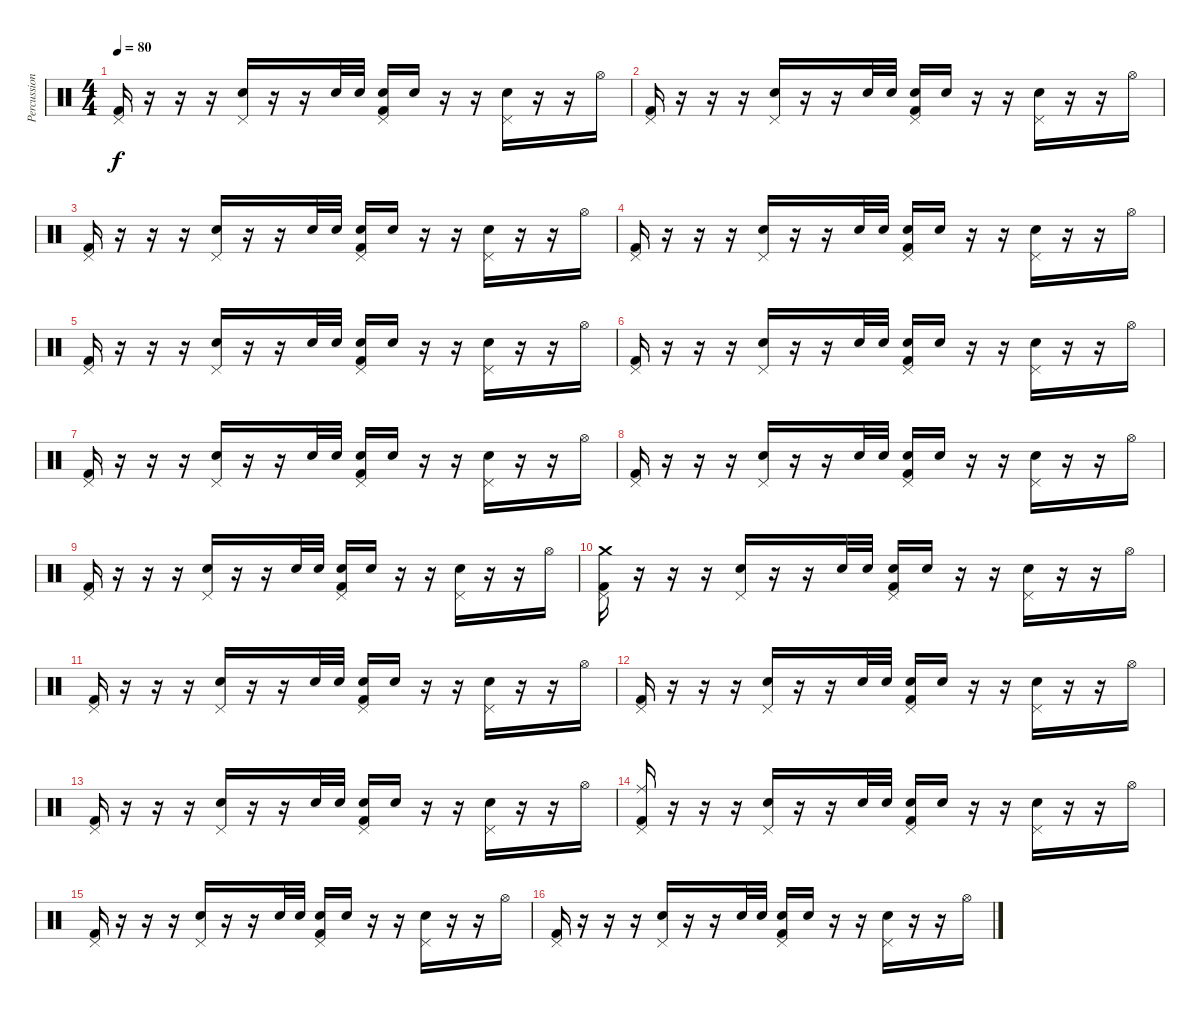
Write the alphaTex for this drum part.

\track ("Percussion" "Percussion") {instrument percussion}
\staff {score}
\articulation defaults
\ts (4 4)
\tempo 80
\clef neutral
\ks c
("Pedal Hi-Hat (hit)" "Kick (hit) 2").16{dy f} r.16 r.16 r.16 ("Pedal Hi-Hat (hit)" "Snare (hit) 2").16 r.16 r.16 "Snare (hit) 2".32 "Snare (hit) 2".32 ("Pedal Hi-Hat (hit)" "Snare (hit) 2" "Kick (hit) 2").16 "Snare (hit) 2".16 r.16 r.16 ("Pedal Hi-Hat (hit)" "Snare (hit) 2").16 r.16 r.16 "Hi-Hat (open)".16 |
("Pedal Hi-Hat (hit)" "Kick (hit) 2").16 r.16 r.16 r.16 ("Pedal Hi-Hat (hit)" "Snare (hit) 2").16 r.16 r.16 "Snare (hit) 2".32 "Snare (hit) 2".32 ("Pedal Hi-Hat (hit)" "Snare (hit) 2" "Kick (hit) 2").16 "Snare (hit) 2".16 r.16 r.16 ("Pedal Hi-Hat (hit)" "Snare (hit) 2").16 r.16 r.16 "Hi-Hat (open)".16 |
("Pedal Hi-Hat (hit)" "Kick (hit) 2").16 r.16 r.16 r.16 ("Pedal Hi-Hat (hit)" "Snare (hit) 2").16 r.16 r.16 "Snare (hit) 2".32 "Snare (hit) 2".32 ("Pedal Hi-Hat (hit)" "Snare (hit) 2" "Kick (hit) 2").16 "Snare (hit) 2".16 r.16 r.16 ("Pedal Hi-Hat (hit)" "Snare (hit) 2").16 r.16 r.16 "Hi-Hat (open)".16 |
("Pedal Hi-Hat (hit)" "Kick (hit) 2").16 r.16 r.16 r.16 ("Pedal Hi-Hat (hit)" "Snare (hit) 2").16 r.16 r.16 "Snare (hit) 2".32 "Snare (hit) 2".32 ("Pedal Hi-Hat (hit)" "Snare (hit) 2" "Kick (hit) 2").16 "Snare (hit) 2".16 r.16 r.16 ("Pedal Hi-Hat (hit)" "Snare (hit) 2").16 r.16 r.16 "Hi-Hat (open)".16 |
("Pedal Hi-Hat (hit)" "Kick (hit) 2").16 r.16 r.16 r.16 ("Pedal Hi-Hat (hit)" "Snare (hit) 2").16 r.16 r.16 "Snare (hit) 2".32 "Snare (hit) 2".32 ("Pedal Hi-Hat (hit)" "Snare (hit) 2" "Kick (hit) 2").16 "Snare (hit) 2".16 r.16 r.16 ("Pedal Hi-Hat (hit)" "Snare (hit) 2").16 r.16 r.16 "Hi-Hat (open)".16 |
("Pedal Hi-Hat (hit)" "Kick (hit) 2").16 r.16 r.16 r.16 ("Pedal Hi-Hat (hit)" "Snare (hit) 2").16 r.16 r.16 "Snare (hit) 2".32 "Snare (hit) 2".32 ("Pedal Hi-Hat (hit)" "Snare (hit) 2" "Kick (hit) 2").16 "Snare (hit) 2".16 r.16 r.16 ("Pedal Hi-Hat (hit)" "Snare (hit) 2").16 r.16 r.16 "Hi-Hat (open)".16 |
("Pedal Hi-Hat (hit)" "Kick (hit) 2").16 r.16 r.16 r.16 ("Pedal Hi-Hat (hit)" "Snare (hit) 2").16 r.16 r.16 "Snare (hit) 2".32 "Snare (hit) 2".32 ("Pedal Hi-Hat (hit)" "Snare (hit) 2" "Kick (hit) 2").16 "Snare (hit) 2".16 r.16 r.16 ("Pedal Hi-Hat (hit)" "Snare (hit) 2").16 r.16 r.16 "Hi-Hat (open)".16 |
("Pedal Hi-Hat (hit)" "Kick (hit) 2").16 r.16 r.16 r.16 ("Pedal Hi-Hat (hit)" "Snare (hit) 2").16 r.16 r.16 "Snare (hit) 2".32 "Snare (hit) 2".32 ("Pedal Hi-Hat (hit)" "Snare (hit) 2" "Kick (hit) 2").16 "Snare (hit) 2".16 r.16 r.16 ("Pedal Hi-Hat (hit)" "Snare (hit) 2").16 r.16 r.16 "Hi-Hat (open)".16 |
("Pedal Hi-Hat (hit)" "Kick (hit) 2").16 r.16 r.16 r.16 ("Pedal Hi-Hat (hit)" "Snare (hit) 2").16 r.16 r.16 "Snare (hit) 2".32 "Snare (hit) 2".32 ("Pedal Hi-Hat (hit)" "Snare (hit) 2" "Kick (hit) 2").16 "Snare (hit) 2".16 r.16 r.16 ("Pedal Hi-Hat (hit)" "Snare (hit) 2").16 r.16 r.16 "Hi-Hat (open)".16 |
("Crash medium (hit)" "Pedal Hi-Hat (hit)" "Kick (hit) 2").16 r.16 r.16 r.16 ("Pedal Hi-Hat (hit)" "Snare (hit) 2").16 r.16 r.16 "Snare (hit) 2".32 "Snare (hit) 2".32 ("Pedal Hi-Hat (hit)" "Snare (hit) 2" "Kick (hit) 2").16 "Snare (hit) 2".16 r.16 r.16 ("Pedal Hi-Hat (hit)" "Snare (hit) 2").16 r.16 r.16 "Hi-Hat (open)".16 |
("Pedal Hi-Hat (hit)" "Kick (hit) 2").16 r.16 r.16 r.16 ("Pedal Hi-Hat (hit)" "Snare (hit) 2").16 r.16 r.16 "Snare (hit) 2".32 "Snare (hit) 2".32 ("Pedal Hi-Hat (hit)" "Snare (hit) 2" "Kick (hit) 2").16 "Snare (hit) 2".16 r.16 r.16 ("Pedal Hi-Hat (hit)" "Snare (hit) 2").16 r.16 r.16 "Hi-Hat (open)".16 |
("Pedal Hi-Hat (hit)" "Kick (hit) 2").16 r.16 r.16 r.16 ("Pedal Hi-Hat (hit)" "Snare (hit) 2").16 r.16 r.16 "Snare (hit) 2".32 "Snare (hit) 2".32 ("Pedal Hi-Hat (hit)" "Snare (hit) 2" "Kick (hit) 2").16 "Snare (hit) 2".16 r.16 r.16 ("Pedal Hi-Hat (hit)" "Snare (hit) 2").16 r.16 r.16 "Hi-Hat (open)".16 |
("Pedal Hi-Hat (hit)" "Kick (hit) 2").16 r.16 r.16 r.16 ("Pedal Hi-Hat (hit)" "Snare (hit) 2").16 r.16 r.16 "Snare (hit) 2".32 "Snare (hit) 2".32 ("Pedal Hi-Hat (hit)" "Snare (hit) 2" "Kick (hit) 2").16 "Snare (hit) 2".16 r.16 r.16 ("Pedal Hi-Hat (hit)" "Snare (hit) 2").16 r.16 r.16 "Hi-Hat (open)".16 |
("Ride (middle)" "Pedal Hi-Hat (hit)" "Kick (hit) 2").16 r.16 r.16 r.16 ("Pedal Hi-Hat (hit)" "Snare (hit) 2").16 r.16 r.16 "Snare (hit) 2".32 "Snare (hit) 2".32 ("Pedal Hi-Hat (hit)" "Snare (hit) 2" "Kick (hit) 2").16 "Snare (hit) 2".16 r.16 r.16 ("Pedal Hi-Hat (hit)" "Snare (hit) 2").16 r.16 r.16 "Hi-Hat (open)".16 |
("Pedal Hi-Hat (hit)" "Kick (hit) 2").16 r.16 r.16 r.16 ("Pedal Hi-Hat (hit)" "Snare (hit) 2").16 r.16 r.16 "Snare (hit) 2".32 "Snare (hit) 2".32 ("Pedal Hi-Hat (hit)" "Snare (hit) 2" "Kick (hit) 2").16 "Snare (hit) 2".16 r.16 r.16 ("Pedal Hi-Hat (hit)" "Snare (hit) 2").16 r.16 r.16 "Hi-Hat (open)".16 |
("Pedal Hi-Hat (hit)" "Kick (hit) 2").16 r.16 r.16 r.16 ("Pedal Hi-Hat (hit)" "Snare (hit) 2").16 r.16 r.16 "Snare (hit) 2".32 "Snare (hit) 2".32 ("Pedal Hi-Hat (hit)" "Snare (hit) 2" "Kick (hit) 2").16 "Snare (hit) 2".16 r.16 r.16 ("Pedal Hi-Hat (hit)" "Snare (hit) 2").16 r.16 r.16 "Hi-Hat (open)".16
